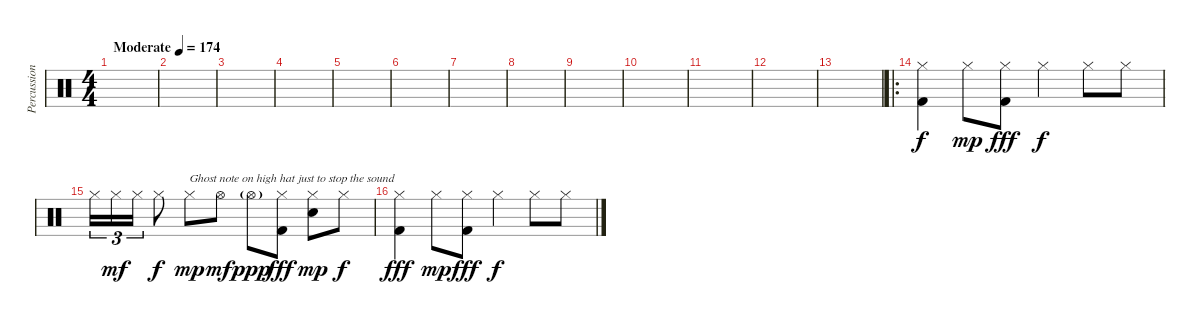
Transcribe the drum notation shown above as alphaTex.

\track ("Percussion" "Percussion") {instrument percussion}
\staff {score}
\articulation defaults
\ts (4 4)
\tempo (174 "Moderate")
\clef neutral
\ks c
|
|
|
|
|
|
|
|
|
|
|
|
|
\ro
("Hi-Hat (closed)" "Kick (hit) 2").4 "Hi-Hat (closed)".8{dy mp} ("Hi-Hat (closed)" "Kick (hit) 2").8{dy fff} "Hi-Hat (closed)".4{dy f} "Hi-Hat (closed)".8 "Hi-Hat (closed)".8 |
"Hi-Hat (closed)".16{tu (3 2)} "Hi-Hat (closed)".16{tu (3 2) dy mf} "Hi-Hat (closed)".16{tu (3 2)} "Hi-Hat (closed)".8{dy f} "Hi-Hat (closed)".8{txt "Ghost note on high hat just to stop the sound" dy mp} "Hi-Hat (open)".8{dy mf} "Hi-Hat (open)"{g}.8{dy ppp} ("Hi-Hat (closed)" "Kick (hit) 2").8{dy fff} ("Hi-Hat (closed)" "Snare (hit) 2").8{dy mp} "Hi-Hat (closed)".8{dy f} |
("Hi-Hat (closed)" "Kick (hit) 2").4{dy fff} "Hi-Hat (closed)".8{dy mp} ("Hi-Hat (closed)" "Kick (hit) 2").8{dy fff} "Hi-Hat (closed)".4{dy f} "Hi-Hat (closed)".8 "Hi-Hat (closed)".8
